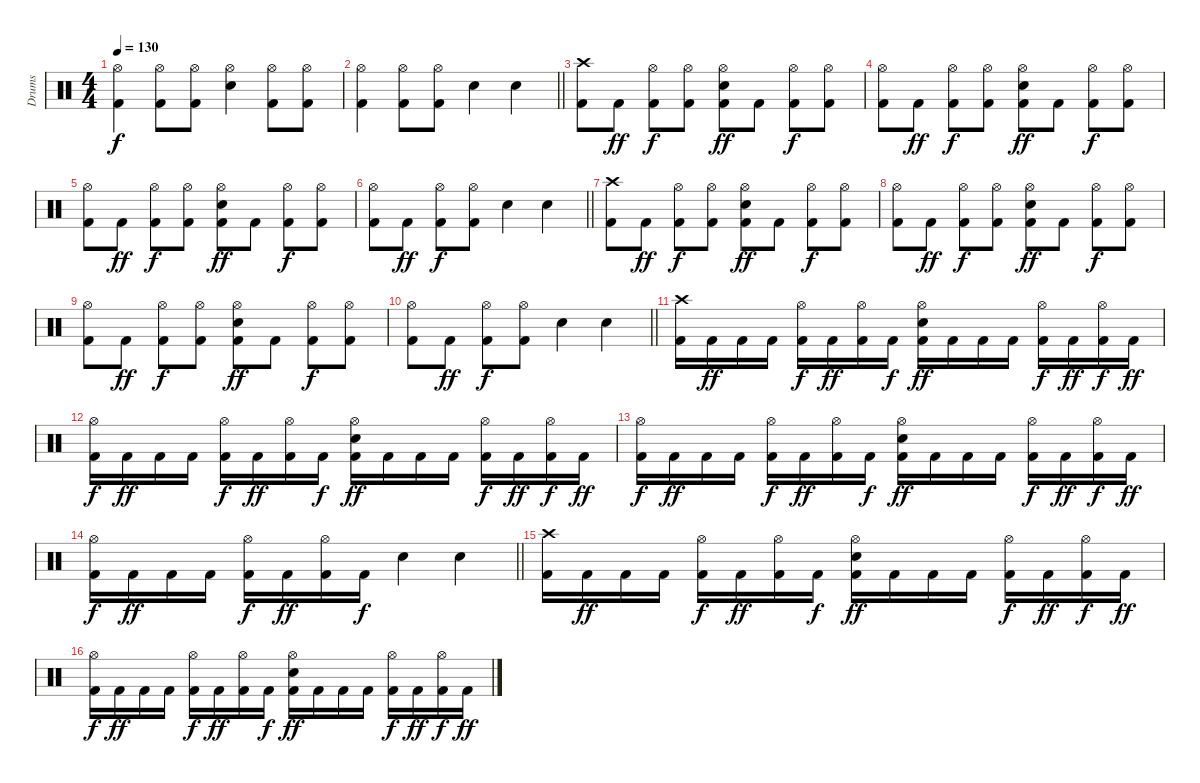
\track ("Drums" "Drums") {instrument percussion}
\staff {score}
\articulation defaults
\ts (4 4)
\tempo 130
\clef neutral
\ks c
("Hi-Hat (open)" "Kick (hit) 2").4{dy f} ("Hi-Hat (open)" "Kick (hit) 2").8 ("Hi-Hat (open)" "Kick (hit) 2").8 ("Hi-Hat (open)" "Snare (hit) 2").4 ("Hi-Hat (open)" "Kick (hit) 2").8 ("Hi-Hat (open)" "Kick (hit) 2").8 |
\barLineRight lightlight
("Hi-Hat (open)" "Kick (hit) 2").4 ("Hi-Hat (open)" "Kick (hit) 2").8 ("Hi-Hat (open)" "Kick (hit) 2").8 "Snare (hit) 2".4 "Snare (hit) 2".4 |
("Crash high (hit)" "Kick (hit) 2").8 "Kick (hit) 2".8{dy ff} ("Hi-Hat (open)" "Kick (hit) 2").8{dy f} ("Hi-Hat (open)" "Kick (hit) 2").8 ("Hi-Hat (open)" "Snare (hit) 2" "Kick (hit) 2").8{dy ff} "Kick (hit) 2".8 ("Hi-Hat (open)" "Kick (hit) 2").8{dy f} ("Hi-Hat (open)" "Kick (hit) 2").8 |
("Hi-Hat (open)" "Kick (hit) 2").8 "Kick (hit) 2".8{dy ff} ("Hi-Hat (open)" "Kick (hit) 2").8{dy f} ("Hi-Hat (open)" "Kick (hit) 2").8 ("Hi-Hat (open)" "Snare (hit) 2" "Kick (hit) 2").8{dy ff} "Kick (hit) 2".8 ("Hi-Hat (open)" "Kick (hit) 2").8{dy f} ("Hi-Hat (open)" "Kick (hit) 2").8 |
("Hi-Hat (open)" "Kick (hit) 2").8 "Kick (hit) 2".8{dy ff} ("Hi-Hat (open)" "Kick (hit) 2").8{dy f} ("Hi-Hat (open)" "Kick (hit) 2").8 ("Hi-Hat (open)" "Snare (hit) 2" "Kick (hit) 2").8{dy ff} "Kick (hit) 2".8 ("Hi-Hat (open)" "Kick (hit) 2").8{dy f} ("Hi-Hat (open)" "Kick (hit) 2").8 |
\barLineRight lightlight
("Hi-Hat (open)" "Kick (hit) 2").8 "Kick (hit) 2".8{dy ff} ("Hi-Hat (open)" "Kick (hit) 2").8{dy f} ("Hi-Hat (open)" "Kick (hit) 2").8 "Snare (hit) 2".4 "Snare (hit) 2".4 |
("Crash high (hit)" "Kick (hit) 2").8 "Kick (hit) 2".8{dy ff} ("Hi-Hat (open)" "Kick (hit) 2").8{dy f} ("Hi-Hat (open)" "Kick (hit) 2").8 ("Hi-Hat (open)" "Snare (hit) 2" "Kick (hit) 2").8{dy ff} "Kick (hit) 2".8 ("Hi-Hat (open)" "Kick (hit) 2").8{dy f} ("Hi-Hat (open)" "Kick (hit) 2").8 |
("Hi-Hat (open)" "Kick (hit) 2").8 "Kick (hit) 2".8{dy ff} ("Hi-Hat (open)" "Kick (hit) 2").8{dy f} ("Hi-Hat (open)" "Kick (hit) 2").8 ("Hi-Hat (open)" "Snare (hit) 2" "Kick (hit) 2").8{dy ff} "Kick (hit) 2".8 ("Hi-Hat (open)" "Kick (hit) 2").8{dy f} ("Hi-Hat (open)" "Kick (hit) 2").8 |
("Hi-Hat (open)" "Kick (hit) 2").8 "Kick (hit) 2".8{dy ff} ("Hi-Hat (open)" "Kick (hit) 2").8{dy f} ("Hi-Hat (open)" "Kick (hit) 2").8 ("Hi-Hat (open)" "Snare (hit) 2" "Kick (hit) 2").8{dy ff} "Kick (hit) 2".8 ("Hi-Hat (open)" "Kick (hit) 2").8{dy f} ("Hi-Hat (open)" "Kick (hit) 2").8 |
\barLineRight lightlight
("Hi-Hat (open)" "Kick (hit) 2").8 "Kick (hit) 2".8{dy ff} ("Hi-Hat (open)" "Kick (hit) 2").8{dy f} ("Hi-Hat (open)" "Kick (hit) 2").8 "Snare (hit) 2".4 "Snare (hit) 2".4 |
("Crash high (hit)" "Kick (hit) 2").16 "Kick (hit) 2".16{dy ff} "Kick (hit) 2".16 "Kick (hit) 2".16 ("Hi-Hat (open)" "Kick (hit) 2").16{dy f} "Kick (hit) 2".16{dy ff} ("Hi-Hat (open)" "Kick (hit) 2").16 "Kick (hit) 2".16{dy f} ("Hi-Hat (open)" "Snare (hit) 2" "Kick (hit) 2").16{dy ff} "Kick (hit) 2".16 "Kick (hit) 2".16 "Kick (hit) 2".16 ("Hi-Hat (open)" "Kick (hit) 2").16{dy f} "Kick (hit) 2".16{dy ff} ("Hi-Hat (open)" "Kick (hit) 2").16{dy f} "Kick (hit) 2".16{dy ff} |
("Hi-Hat (open)" "Kick (hit) 2").16{dy f} "Kick (hit) 2".16{dy ff} "Kick (hit) 2".16 "Kick (hit) 2".16 ("Hi-Hat (open)" "Kick (hit) 2").16{dy f} "Kick (hit) 2".16{dy ff} ("Hi-Hat (open)" "Kick (hit) 2").16 "Kick (hit) 2".16{dy f} ("Hi-Hat (open)" "Snare (hit) 2" "Kick (hit) 2").16{dy ff} "Kick (hit) 2".16 "Kick (hit) 2".16 "Kick (hit) 2".16 ("Hi-Hat (open)" "Kick (hit) 2").16{dy f} "Kick (hit) 2".16{dy ff} ("Hi-Hat (open)" "Kick (hit) 2").16{dy f} "Kick (hit) 2".16{dy ff} |
("Hi-Hat (open)" "Kick (hit) 2").16{dy f} "Kick (hit) 2".16{dy ff} "Kick (hit) 2".16 "Kick (hit) 2".16 ("Hi-Hat (open)" "Kick (hit) 2").16{dy f} "Kick (hit) 2".16{dy ff} ("Hi-Hat (open)" "Kick (hit) 2").16 "Kick (hit) 2".16{dy f} ("Hi-Hat (open)" "Snare (hit) 2" "Kick (hit) 2").16{dy ff} "Kick (hit) 2".16 "Kick (hit) 2".16 "Kick (hit) 2".16 ("Hi-Hat (open)" "Kick (hit) 2").16{dy f} "Kick (hit) 2".16{dy ff} ("Hi-Hat (open)" "Kick (hit) 2").16{dy f} "Kick (hit) 2".16{dy ff} |
\barLineRight lightlight
("Hi-Hat (open)" "Kick (hit) 2").16{dy f} "Kick (hit) 2".16{dy ff} "Kick (hit) 2".16 "Kick (hit) 2".16 ("Hi-Hat (open)" "Kick (hit) 2").16{dy f} "Kick (hit) 2".16{dy ff} ("Hi-Hat (open)" "Kick (hit) 2").16 "Kick (hit) 2".16{dy f} "Snare (hit) 2".4 "Snare (hit) 2".4 |
("Crash high (hit)" "Kick (hit) 2").16 "Kick (hit) 2".16{dy ff} "Kick (hit) 2".16 "Kick (hit) 2".16 ("Hi-Hat (open)" "Kick (hit) 2").16{dy f} "Kick (hit) 2".16{dy ff} ("Hi-Hat (open)" "Kick (hit) 2").16 "Kick (hit) 2".16{dy f} ("Hi-Hat (open)" "Snare (hit) 2" "Kick (hit) 2").16{dy ff} "Kick (hit) 2".16 "Kick (hit) 2".16 "Kick (hit) 2".16 ("Hi-Hat (open)" "Kick (hit) 2").16{dy f} "Kick (hit) 2".16{dy ff} ("Hi-Hat (open)" "Kick (hit) 2").16{dy f} "Kick (hit) 2".16{dy ff} |
("Hi-Hat (open)" "Kick (hit) 2").16{dy f} "Kick (hit) 2".16{dy ff} "Kick (hit) 2".16 "Kick (hit) 2".16 ("Hi-Hat (open)" "Kick (hit) 2").16{dy f} "Kick (hit) 2".16{dy ff} ("Hi-Hat (open)" "Kick (hit) 2").16 "Kick (hit) 2".16{dy f} ("Hi-Hat (open)" "Snare (hit) 2" "Kick (hit) 2").16{dy ff} "Kick (hit) 2".16 "Kick (hit) 2".16 "Kick (hit) 2".16 ("Hi-Hat (open)" "Kick (hit) 2").16{dy f} "Kick (hit) 2".16{dy ff} ("Hi-Hat (open)" "Kick (hit) 2").16{dy f} "Kick (hit) 2".16{dy ff}
